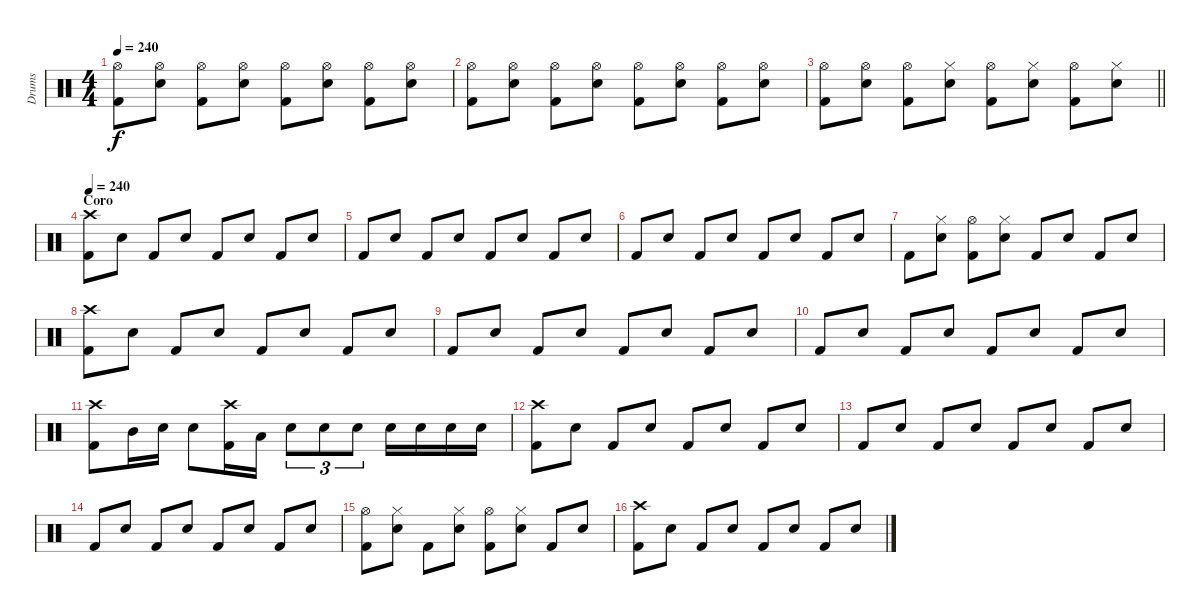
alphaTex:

\track ("Drums" "Drums") {instrument percussion}
\staff {score}
\articulation defaults
\ts (4 4)
\tempo 240
\clef neutral
\ks c
("Hi-Hat (open)" "Kick (hit) 2").8{dy f} ("Hi-Hat (open)" "Snare (hit) 2").8 ("Hi-Hat (open)" "Kick (hit) 2").8 ("Hi-Hat (open)" "Snare (hit) 2").8 ("Hi-Hat (open)" "Kick (hit) 2").8 ("Hi-Hat (open)" "Snare (hit) 2").8 ("Hi-Hat (open)" "Kick (hit) 2").8 ("Hi-Hat (open)" "Snare (hit) 2").8 |
("Hi-Hat (open)" "Kick (hit) 2").8 ("Hi-Hat (open)" "Snare (hit) 2").8 ("Hi-Hat (open)" "Kick (hit) 2").8 ("Hi-Hat (open)" "Snare (hit) 2").8 ("Hi-Hat (open)" "Kick (hit) 2").8 ("Hi-Hat (open)" "Snare (hit) 2").8 ("Hi-Hat (open)" "Kick (hit) 2").8 ("Hi-Hat (open)" "Snare (hit) 2").8 |
\barLineRight lightlight
("Hi-Hat (open)" "Kick (hit) 2").8 ("Hi-Hat (open)" "Snare (hit) 2").8 ("Hi-Hat (open)" "Kick (hit) 2").8 ("Hi-Hat (closed)" "Snare (hit) 2").8 ("Hi-Hat (open)" "Kick (hit) 2").8 ("Hi-Hat (closed)" "Snare (hit) 2").8 ("Hi-Hat (open)" "Kick (hit) 2").8 ("Hi-Hat (closed)" "Snare (hit) 2").8 |
\section ("" "Coro")
\tempo 240
("Crash high (hit)" "Kick (hit) 2").8 "Snare (hit) 2".8 "Kick (hit) 2".8 "Snare (hit) 2".8 "Kick (hit) 2".8 "Snare (hit) 2".8 "Kick (hit) 2".8 "Snare (hit) 2".8 |
"Kick (hit) 2".8 "Snare (hit) 2".8 "Kick (hit) 2".8 "Snare (hit) 2".8 "Kick (hit) 2".8 "Snare (hit) 2".8 "Kick (hit) 2".8 "Snare (hit) 2".8 |
"Kick (hit) 2".8 "Snare (hit) 2".8 "Kick (hit) 2".8 "Snare (hit) 2".8 "Kick (hit) 2".8 "Snare (hit) 2".8 "Kick (hit) 2".8 "Snare (hit) 2".8 |
"Kick (hit) 2".8 ("Hi-Hat (closed)" "Snare (hit) 2").8 ("Hi-Hat (open)" "Kick (hit) 2").8 ("Hi-Hat (closed)" "Snare (hit) 2").8 "Kick (hit) 2".8 "Snare (hit) 2".8 "Kick (hit) 2".8 "Snare (hit) 2".8 |
("Crash high (hit)" "Kick (hit) 2").8 "Snare (hit) 2".8 "Kick (hit) 2".8 "Snare (hit) 2".8 "Kick (hit) 2".8 "Snare (hit) 2".8 "Kick (hit) 2".8 "Snare (hit) 2".8 |
"Kick (hit) 2".8 "Snare (hit) 2".8 "Kick (hit) 2".8 "Snare (hit) 2".8 "Kick (hit) 2".8 "Snare (hit) 2".8 "Kick (hit) 2".8 "Snare (hit) 2".8 |
"Kick (hit) 2".8 "Snare (hit) 2".8 "Kick (hit) 2".8 "Snare (hit) 2".8 "Kick (hit) 2".8 "Snare (hit) 2".8 "Kick (hit) 2".8 "Snare (hit) 2".8 |
("Crash high (hit)" "Kick (hit) 2").8 "Mid Tom (hit)".16 "Snare (hit) 2".16 "Snare (hit) 2".8 ("Crash high (hit)" "Kick (hit) 2").16 "Low Tom (hit)".16 "Snare (hit) 2".8{tu (3 2)} "Snare (hit) 2".8{tu (3 2)} "Snare (hit) 2".8{tu (3 2)} "Snare (hit) 2".16 "Snare (hit) 2".16 "Snare (hit) 2".16 "Snare (hit) 2".16 |
("Crash high (hit)" "Kick (hit) 2").8 "Snare (hit) 2".8 "Kick (hit) 2".8 "Snare (hit) 2".8 "Kick (hit) 2".8 "Snare (hit) 2".8 "Kick (hit) 2".8 "Snare (hit) 2".8 |
"Kick (hit) 2".8 "Snare (hit) 2".8 "Kick (hit) 2".8 "Snare (hit) 2".8 "Kick (hit) 2".8 "Snare (hit) 2".8 "Kick (hit) 2".8 "Snare (hit) 2".8 |
"Kick (hit) 2".8 "Snare (hit) 2".8 "Kick (hit) 2".8 "Snare (hit) 2".8 "Kick (hit) 2".8 "Snare (hit) 2".8 "Kick (hit) 2".8 "Snare (hit) 2".8 |
("Hi-Hat (open)" "Kick (hit) 2").8 ("Hi-Hat (closed)" "Snare (hit) 2").8 "Kick (hit) 2".8 ("Hi-Hat (closed)" "Snare (hit) 2").8 ("Hi-Hat (open)" "Kick (hit) 2").8 ("Hi-Hat (closed)" "Snare (hit) 2").8 "Kick (hit) 2".8 "Snare (hit) 2".8 |
("Crash high (hit)" "Kick (hit) 2").8 "Snare (hit) 2".8 "Kick (hit) 2".8 "Snare (hit) 2".8 "Kick (hit) 2".8 "Snare (hit) 2".8 "Kick (hit) 2".8 "Snare (hit) 2".8
